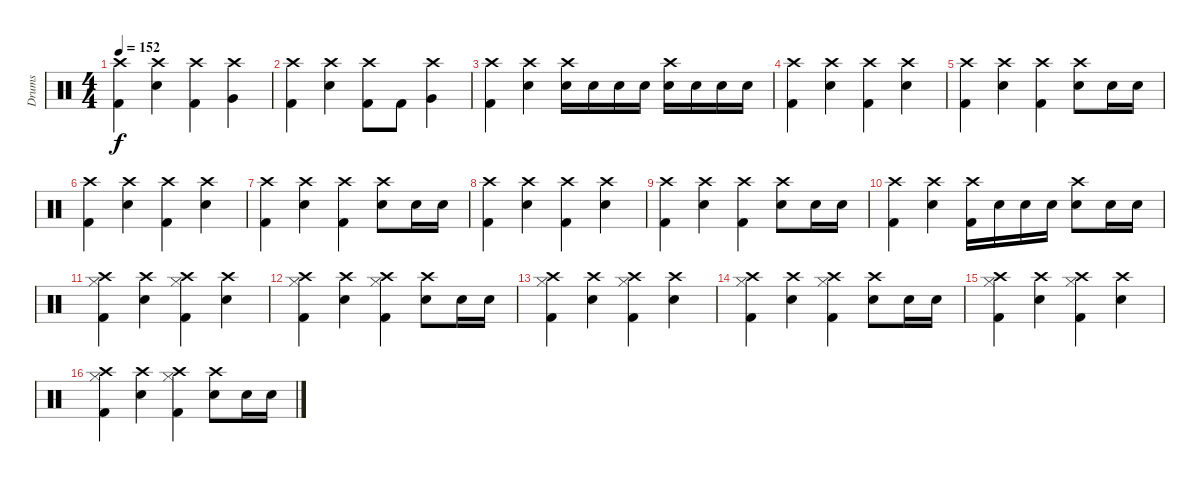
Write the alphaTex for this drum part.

\track ("Drums" "Drums") {instrument percussion}
\staff {score}
\articulation defaults
\ts (4 4)
\tempo 152
\clef neutral
\ks c
("Crash high (hit)" "Kick (hit) 2").4{dy f} ("Crash high (hit)" "Electric Snare (hit)").4 ("Crash high (hit)" "Kick (hit) 2").4 ("Crash high (hit)" "Very Low Tom (hit)").4 |
("Crash high (hit)" "Kick (hit) 2").4 ("Crash high (hit)" "Electric Snare (hit)").4 ("Crash high (hit)" "Kick (hit) 2").8 "Kick (hit) 2".8 ("Crash high (hit)" "Very Low Tom (hit)").4 |
("Crash high (hit)" "Kick (hit) 2").4 ("Crash high (hit)" "Electric Snare (hit)").4 ("Crash high (hit)" "Electric Snare (hit)").16 "Electric Snare (hit)".16 "Electric Snare (hit)".16 "Electric Snare (hit)".16 ("Crash high (hit)" "Electric Snare (hit)").16 "Electric Snare (hit)".16 "Electric Snare (hit)".16 "Electric Snare (hit)".16 |
("Crash high (hit)" "Kick (hit) 2").4 ("Crash high (hit)" "Electric Snare (hit)").4 ("Crash high (hit)" "Kick (hit) 2").4 ("Crash high (hit)" "Electric Snare (hit)").4 |
("Crash high (hit)" "Kick (hit) 2").4 ("Crash high (hit)" "Electric Snare (hit)").4 ("Crash high (hit)" "Kick (hit) 2").4 ("Crash high (hit)" "Electric Snare (hit)").8 "Electric Snare (hit)".16 "Electric Snare (hit)".16 |
("Crash high (hit)" "Kick (hit) 2").4 ("Crash high (hit)" "Electric Snare (hit)").4 ("Crash high (hit)" "Kick (hit) 2").4 ("Crash high (hit)" "Electric Snare (hit)").4 |
("Crash high (hit)" "Kick (hit) 2").4 ("Crash high (hit)" "Electric Snare (hit)").4 ("Crash high (hit)" "Kick (hit) 2").4 ("Crash high (hit)" "Electric Snare (hit)").8 "Electric Snare (hit)".16 "Electric Snare (hit)".16 |
("Crash high (hit)" "Kick (hit) 2").4 ("Crash high (hit)" "Electric Snare (hit)").4 ("Crash high (hit)" "Kick (hit) 2").4 ("Crash high (hit)" "Electric Snare (hit)").4 |
("Crash high (hit)" "Kick (hit) 2").4 ("Crash high (hit)" "Electric Snare (hit)").4 ("Crash high (hit)" "Kick (hit) 2").4 ("Crash high (hit)" "Electric Snare (hit)").8 "Electric Snare (hit)".16 "Electric Snare (hit)".16 |
("Crash high (hit)" "Kick (hit) 2").4 ("Crash high (hit)" "Electric Snare (hit)").4 ("Crash high (hit)" "Kick (hit) 2").16 "Electric Snare (hit)".16 "Electric Snare (hit)".16 "Electric Snare (hit)".16 ("Crash high (hit)" "Electric Snare (hit)").8 "Electric Snare (hit)".16 "Electric Snare (hit)".16 |
("Crash high (hit)" "Hi-Hat (closed)" "Kick (hit) 2").4 ("Crash high (hit)" "Electric Snare (hit)").4 ("Crash high (hit)" "Hi-Hat (closed)" "Kick (hit) 2").4 ("Crash high (hit)" "Electric Snare (hit)").4 |
("Crash high (hit)" "Hi-Hat (closed)" "Kick (hit) 2").4 ("Crash high (hit)" "Electric Snare (hit)").4 ("Crash high (hit)" "Hi-Hat (closed)" "Kick (hit) 2").4 ("Crash high (hit)" "Electric Snare (hit)").8 "Electric Snare (hit)".16 "Electric Snare (hit)".16 |
("Crash high (hit)" "Hi-Hat (closed)" "Kick (hit) 2").4 ("Crash high (hit)" "Electric Snare (hit)").4 ("Crash high (hit)" "Hi-Hat (closed)" "Kick (hit) 2").4 ("Crash high (hit)" "Electric Snare (hit)").4 |
("Crash high (hit)" "Hi-Hat (closed)" "Kick (hit) 2").4 ("Crash high (hit)" "Electric Snare (hit)").4 ("Crash high (hit)" "Hi-Hat (closed)" "Kick (hit) 2").4 ("Crash high (hit)" "Electric Snare (hit)").8 "Electric Snare (hit)".16 "Electric Snare (hit)".16 |
("Crash high (hit)" "Hi-Hat (closed)" "Kick (hit) 2").4 ("Crash high (hit)" "Electric Snare (hit)").4 ("Crash high (hit)" "Hi-Hat (closed)" "Kick (hit) 2").4 ("Crash high (hit)" "Electric Snare (hit)").4 |
("Crash high (hit)" "Hi-Hat (closed)" "Kick (hit) 2").4 ("Crash high (hit)" "Electric Snare (hit)").4 ("Crash high (hit)" "Hi-Hat (closed)" "Kick (hit) 2").4 ("Crash high (hit)" "Electric Snare (hit)").8 "Electric Snare (hit)".16 "Electric Snare (hit)".16
